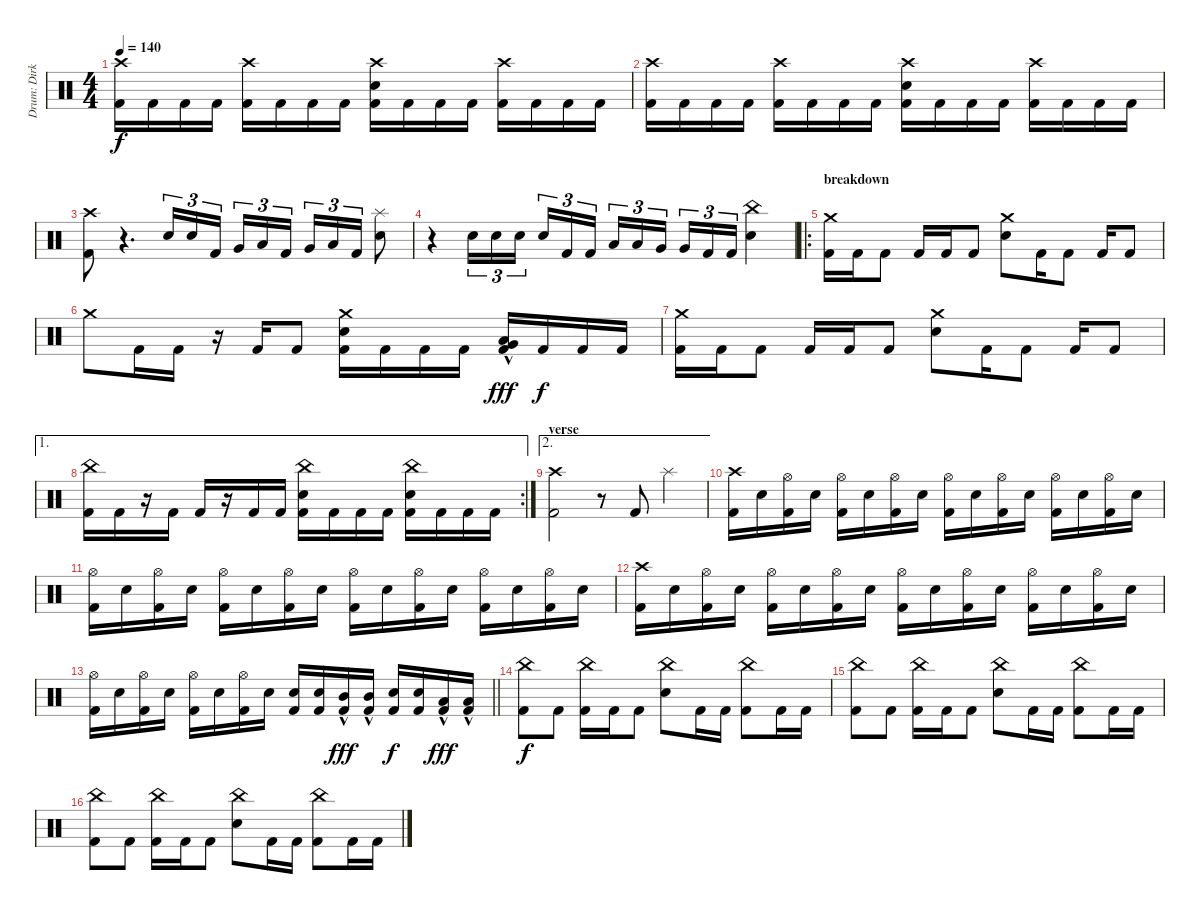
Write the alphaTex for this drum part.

\track ("Drum: Dirk" "Drum: Dirk") {instrument percussion}
\staff {score}
\articulation defaults
\ts (4 4)
\tempo 140
\clef neutral
\ks c
("Crash high (hit)" "Kick (hit) 2").16{dy f} "Kick (hit) 2".16 "Kick (hit) 2".16 "Kick (hit) 2".16 ("Crash high (hit)" "Kick (hit) 2").16 "Kick (hit) 2".16 "Kick (hit) 2".16 "Kick (hit) 2".16 ("Crash high (hit)" "Electric Snare (hit)" "Kick (hit) 2").16 "Kick (hit) 2".16 "Kick (hit) 2".16 "Kick (hit) 2".16 ("Crash high (hit)" "Kick (hit) 2").16 "Kick (hit) 2".16 "Kick (hit) 2".16 "Kick (hit) 2".16 |
("Crash high (hit)" "Kick (hit) 2").16 "Kick (hit) 2".16 "Kick (hit) 2".16 "Kick (hit) 2".16 ("Crash high (hit)" "Kick (hit) 2").16 "Kick (hit) 2".16 "Kick (hit) 2".16 "Kick (hit) 2".16 ("Crash high (hit)" "Electric Snare (hit)" "Kick (hit) 2").16 "Kick (hit) 2".16 "Kick (hit) 2".16 "Kick (hit) 2".16 ("Crash high (hit)" "Kick (hit) 2").16 "Kick (hit) 2".16 "Kick (hit) 2".16 "Kick (hit) 2".16 |
("Crash high (hit)" "Kick (hit) 2").8 r.4{d} "Electric Snare (hit)".16{tu (3 2)} "Electric Snare (hit)".16{tu (3 2)} "Kick (hit) 2".16{tu (3 2) beam splitsecondary} "Very Low Tom (hit)".16{tu (3 2)} "Low Tom (hit)".16{tu (3 2)} "Kick (hit) 2".16{tu (3 2)} "Very Low Tom (hit)".16{tu (3 2)} "Low Tom (hit)".16{tu (3 2)} "Kick (hit) 2".16{tu (3 2)} ("Splash (hit)" "Electric Snare (hit)").8 |
r.4 "Electric Snare (hit)".16{tu (3 2)} "Electric Snare (hit)".16{tu (3 2)} "Electric Snare (hit)".16{tu (3 2) beam splitsecondary} "Electric Snare (hit)".16{tu (3 2)} "Kick (hit) 2".16{tu (3 2)} "Kick (hit) 2".16{tu (3 2)} "Low Tom (hit)".16{tu (3 2)} "Low Tom (hit)".16{tu (3 2)} "Very Low Tom (hit)".16{tu (3 2) beam splitsecondary} "Very Low Tom (hit)".16{tu (3 2)} "Kick (hit) 2".16{tu (3 2)} "Kick (hit) 2".16{tu (3 2)} ("China (hit)" "Electric Snare (hit)").4 |
\ro
\section ("" "breakdown")
("Crash medium (hit)" "Kick (hit) 2").16 "Kick (hit) 2".16 "Kick (hit) 2".8 "Kick (hit) 2".16 "Kick (hit) 2".16 "Kick (hit) 2".8 ("Crash medium (hit)" "Electric Snare (hit)").8 "Kick (hit) 2".16 "Kick (hit) 2".8 "Kick (hit) 2".16 "Kick (hit) 2".8 |
"Crash medium (hit)".8 "Kick (hit) 2".16 "Kick (hit) 2".16 r.16 "Kick (hit) 2".16 "Kick (hit) 2".8 ("Crash medium (hit)" "Electric Snare (hit)" "Kick (hit) 2").16 "Kick (hit) 2".16 "Kick (hit) 2".16 "Kick (hit) 2".16 ("Low Tom (hit)"{hac} "Very Low Tom (hit)"{hac} "Kick (hit) 2").16{dy fff} "Kick (hit) 2".16{dy f} "Kick (hit) 2".16 "Kick (hit) 2".16 |
("Crash medium (hit)" "Kick (hit) 2").16 "Kick (hit) 2".16 "Kick (hit) 2".8 "Kick (hit) 2".16 "Kick (hit) 2".16 "Kick (hit) 2".8 ("Crash medium (hit)" "Electric Snare (hit)").8 "Kick (hit) 2".16 "Kick (hit) 2".8 "Kick (hit) 2".16 "Kick (hit) 2".8 |
\ae 1
\rc 2
("China (hit)" "Kick (hit) 2").16 "Kick (hit) 2".16 r.16 "Kick (hit) 2".16 "Kick (hit) 2".16 r.16 "Kick (hit) 2".16 "Kick (hit) 2".16 ("China (hit)" "Electric Snare (hit)" "Kick (hit) 2").16 "Kick (hit) 2".16 "Kick (hit) 2".16 "Kick (hit) 2".16 ("China (hit)" "Electric Snare (hit)" "Kick (hit) 2").16 "Kick (hit) 2".16 "Kick (hit) 2".16 "Kick (hit) 2".16 |
\ae 2
\section ("" "verse")
("Crash high (hit)" "Kick (hit) 2").2 r.8 "Kick (hit) 2".8 "Splash (hit)".4 |
("Crash high (hit)" "Kick (hit) 2").16 "Electric Snare (hit)".16 ("Hi-Hat (open)" "Kick (hit) 2").16 "Electric Snare (hit)".16 ("Hi-Hat (open)" "Kick (hit) 2").16 "Electric Snare (hit)".16 ("Hi-Hat (open)" "Kick (hit) 2").16 "Electric Snare (hit)".16 ("Hi-Hat (open)" "Kick (hit) 2").16 "Electric Snare (hit)".16 ("Hi-Hat (open)" "Kick (hit) 2").16 "Electric Snare (hit)".16 ("Hi-Hat (open)" "Kick (hit) 2").16 "Electric Snare (hit)".16 ("Hi-Hat (open)" "Kick (hit) 2").16 "Electric Snare (hit)".16 |
("Hi-Hat (open)" "Kick (hit) 2").16 "Electric Snare (hit)".16 ("Hi-Hat (open)" "Kick (hit) 2").16 "Electric Snare (hit)".16 ("Hi-Hat (open)" "Kick (hit) 2").16 "Electric Snare (hit)".16 ("Hi-Hat (open)" "Kick (hit) 2").16 "Electric Snare (hit)".16 ("Hi-Hat (open)" "Kick (hit) 2").16 "Electric Snare (hit)".16 ("Hi-Hat (open)" "Kick (hit) 2").16 "Electric Snare (hit)".16 ("Hi-Hat (open)" "Kick (hit) 2").16 "Electric Snare (hit)".16 ("Hi-Hat (open)" "Kick (hit) 2").16 "Electric Snare (hit)".16 |
("Crash high (hit)" "Kick (hit) 2").16 "Electric Snare (hit)".16 ("Hi-Hat (open)" "Kick (hit) 2").16 "Electric Snare (hit)".16 ("Hi-Hat (open)" "Kick (hit) 2").16 "Electric Snare (hit)".16 ("Hi-Hat (open)" "Kick (hit) 2").16 "Electric Snare (hit)".16 ("Hi-Hat (open)" "Kick (hit) 2").16 "Electric Snare (hit)".16 ("Hi-Hat (open)" "Kick (hit) 2").16 "Electric Snare (hit)".16 ("Hi-Hat (open)" "Kick (hit) 2").16 "Electric Snare (hit)".16 ("Hi-Hat (open)" "Kick (hit) 2").16 "Electric Snare (hit)".16 |
\barLineRight lightlight
("Hi-Hat (open)" "Kick (hit) 2").16 "Electric Snare (hit)".16 ("Hi-Hat (open)" "Kick (hit) 2").16 "Electric Snare (hit)".16 ("Hi-Hat (open)" "Kick (hit) 2").16 "Electric Snare (hit)".16 ("Hi-Hat (open)" "Kick (hit) 2").16 "Electric Snare (hit)".16 ("Electric Snare (hit)" "Kick (hit) 2").16 ("Electric Snare (hit)" "Kick (hit) 2").16 ("Mid Tom (hit)"{hac} "Kick (hit) 2").16{dy fff} ("Mid Tom (hit)"{hac} "Kick (hit) 2").16 ("Electric Snare (hit)" "Kick (hit) 2").16{dy f} ("Electric Snare (hit)" "Kick (hit) 2").16 ("Low Tom (hit)"{hac} "Kick (hit) 2").16{dy fff} ("Low Tom (hit)"{hac} "Kick (hit) 2").16 |
("China (hit)" "Kick (hit) 2").8{dy f} "Kick (hit) 2".8 ("China (hit)" "Kick (hit) 2").16 "Kick (hit) 2".16 "Kick (hit) 2".8 ("China (hit)" "Electric Snare (hit)").8 "Kick (hit) 2".16 "Kick (hit) 2".16 ("China (hit)" "Kick (hit) 2").8 "Kick (hit) 2".16 "Kick (hit) 2".16 |
("China (hit)" "Kick (hit) 2").8 "Kick (hit) 2".8 ("China (hit)" "Kick (hit) 2").16 "Kick (hit) 2".16 "Kick (hit) 2".8 ("China (hit)" "Electric Snare (hit)").8 "Kick (hit) 2".16 "Kick (hit) 2".16 ("China (hit)" "Kick (hit) 2").8 "Kick (hit) 2".16 "Kick (hit) 2".16 |
("China (hit)" "Kick (hit) 2").8 "Kick (hit) 2".8 ("China (hit)" "Kick (hit) 2").16 "Kick (hit) 2".16 "Kick (hit) 2".8 ("China (hit)" "Electric Snare (hit)").8 "Kick (hit) 2".16 "Kick (hit) 2".16 ("China (hit)" "Kick (hit) 2").8 "Kick (hit) 2".16 "Kick (hit) 2".16
